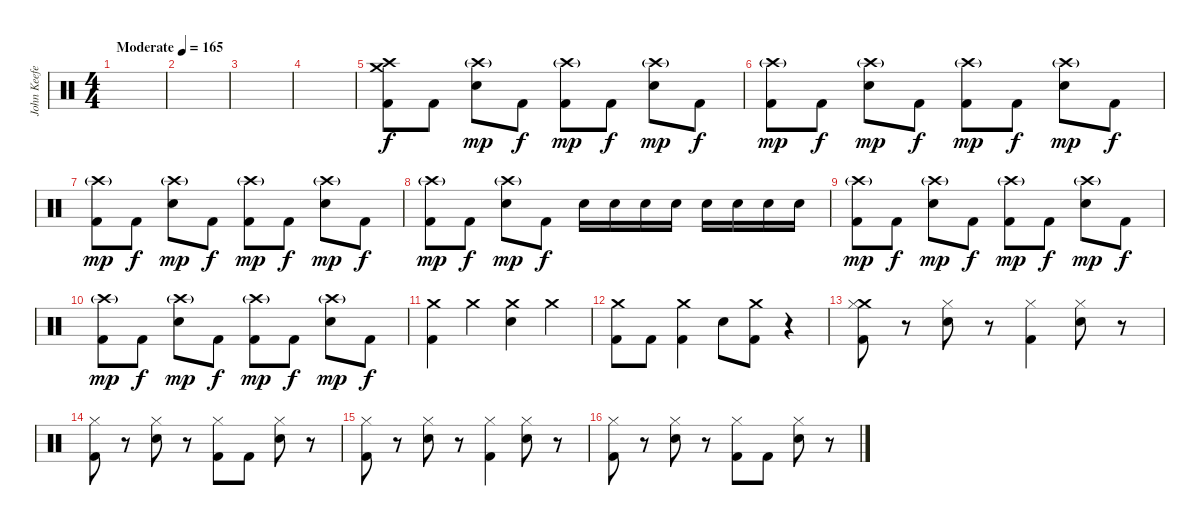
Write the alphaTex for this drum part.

\track ("John Keefe (Drums)" "John Keefe") {instrument percussion}
\staff {score}
\articulation defaults
\ts (4 4)
\tempo (165 "Moderate")
\clef neutral
\ks c
|
|
|
|
("Crash medium (hit)" "Crash high (hit)" "Kick (hit) 2").8 "Kick (hit) 2".8 ("Crash high (hit)"{g} "Electric Snare (hit)").8{dy mp} "Kick (hit) 2".8{dy f} ("Crash high (hit)"{g} "Kick (hit) 2").8{dy mp} "Kick (hit) 2".8{dy f} ("Crash high (hit)"{g} "Electric Snare (hit)").8{dy mp} "Kick (hit) 2".8{dy f} |
("Crash high (hit)"{g} "Kick (hit) 2").8{dy mp} "Kick (hit) 2".8{dy f} ("Crash high (hit)"{g} "Electric Snare (hit)").8{dy mp} "Kick (hit) 2".8{dy f} ("Crash high (hit)"{g} "Kick (hit) 2").8{dy mp} "Kick (hit) 2".8{dy f} ("Crash high (hit)"{g} "Electric Snare (hit)").8{dy mp} "Kick (hit) 2".8{dy f} |
("Crash high (hit)"{g} "Kick (hit) 2").8{dy mp} "Kick (hit) 2".8{dy f} ("Crash high (hit)"{g} "Electric Snare (hit)").8{dy mp} "Kick (hit) 2".8{dy f} ("Crash high (hit)"{g} "Kick (hit) 2").8{dy mp} "Kick (hit) 2".8{dy f} ("Crash high (hit)"{g} "Electric Snare (hit)").8{dy mp} "Kick (hit) 2".8{dy f} |
("Crash high (hit)"{g} "Kick (hit) 2").8{dy mp} "Kick (hit) 2".8{dy f} ("Crash high (hit)"{g} "Electric Snare (hit)").8{dy mp} "Kick (hit) 2".8{dy f} "Electric Snare (hit)".16 "Electric Snare (hit)".16 "Electric Snare (hit)".16 "Electric Snare (hit)".16 "Electric Snare (hit)".16 "Electric Snare (hit)".16 "Electric Snare (hit)".16 "Electric Snare (hit)".16 |
("Crash high (hit)"{g} "Kick (hit) 2").8{dy mp} "Kick (hit) 2".8{dy f} ("Crash high (hit)"{g} "Electric Snare (hit)").8{dy mp} "Kick (hit) 2".8{dy f} ("Crash high (hit)"{g} "Kick (hit) 2").8{dy mp} "Kick (hit) 2".8{dy f} ("Crash high (hit)"{g} "Electric Snare (hit)").8{dy mp} "Kick (hit) 2".8{dy f} |
("Crash high (hit)"{g} "Kick (hit) 2").8{dy mp} "Kick (hit) 2".8{dy f} ("Crash high (hit)"{g} "Electric Snare (hit)").8{dy mp} "Kick (hit) 2".8{dy f} ("Crash high (hit)"{g} "Kick (hit) 2").8{dy mp} "Kick (hit) 2".8{dy f} ("Crash high (hit)"{g} "Electric Snare (hit)").8{dy mp} "Kick (hit) 2".8{dy f} |
("Crash medium (hit)" "Kick (hit) 2").4 "Crash medium (hit)".4 ("Crash medium (hit)" "Electric Snare (hit)").4 "Crash medium (hit)".4 |
("Crash medium (hit)" "Kick (hit) 2").8 "Kick (hit) 2".8 ("Crash medium (hit)" "Kick (hit) 2").4 "Electric Snare (hit)".8 ("Crash medium (hit)" "Kick (hit) 2").8 r.4 |
("Crash medium (hit)" "Hi-Hat (closed)" "Kick (hit) 2").8 r.8 ("Hi-Hat (closed)" "Electric Snare (hit)").8 r.8 ("Hi-Hat (closed)" "Kick (hit) 2").4 ("Hi-Hat (closed)" "Electric Snare (hit)").8 r.8 |
("Hi-Hat (closed)" "Kick (hit) 2").8 r.8 ("Hi-Hat (closed)" "Electric Snare (hit)").8 r.8 ("Hi-Hat (closed)" "Kick (hit) 2").8 "Kick (hit) 2".8 ("Hi-Hat (closed)" "Electric Snare (hit)").8 r.8 |
("Hi-Hat (closed)" "Kick (hit) 2").8 r.8 ("Hi-Hat (closed)" "Electric Snare (hit)").8 r.8 ("Hi-Hat (closed)" "Kick (hit) 2").4 ("Hi-Hat (closed)" "Electric Snare (hit)").8 r.8 |
("Hi-Hat (closed)" "Kick (hit) 2").8 r.8 ("Hi-Hat (closed)" "Electric Snare (hit)").8 r.8 ("Hi-Hat (closed)" "Kick (hit) 2").8 "Kick (hit) 2".8 ("Hi-Hat (closed)" "Electric Snare (hit)").8 r.8
